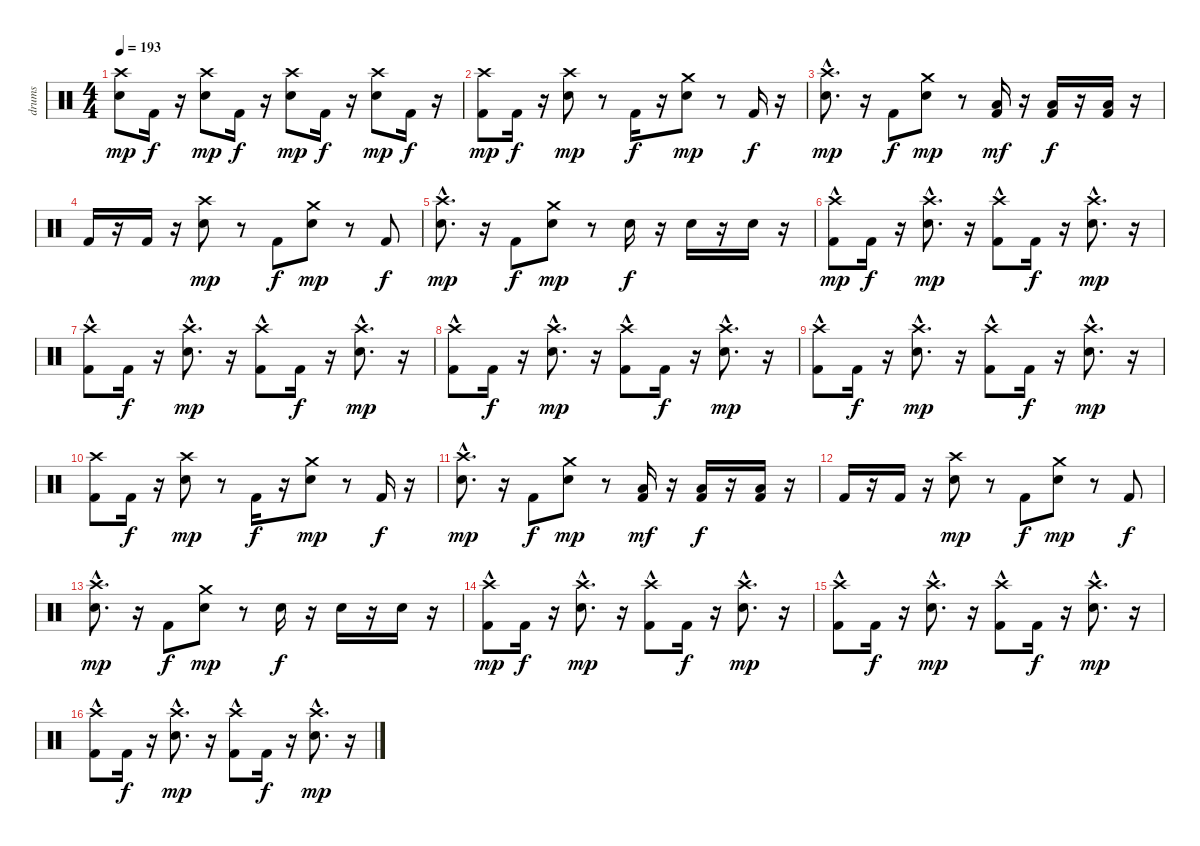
\track ("drums" "drums") {instrument percussion}
\staff {score}
\articulation defaults
\ts (4 4)
\tempo 193
\clef neutral
\ks c
("Snare (hit) 2" "Crash high (hit)").8{dy mp} "Kick (hit) 2".16{dy f} r.16 ("Snare (hit) 2" "Crash high (hit)").8{dy mp} "Kick (hit) 2".16{dy f} r.16 ("Snare (hit) 2" "Crash high (hit)").8{dy mp} "Kick (hit) 2".16{dy f} r.16 ("Snare (hit) 2" "Crash high (hit)").8{dy mp} "Kick (hit) 2".16{dy f} r.16 |
("Kick (hit) 2" "Crash high (hit)").8{dy mp} "Kick (hit) 2".16{dy f} r.16 ("Snare (hit) 2" "Crash high (hit)").8{dy mp} r.8 "Kick (hit) 2".16{dy f} r.16 ("Snare (hit) 2" "Crash medium (hit)").8{dy mp} r.8 "Kick (hit) 2".16{dy f} r.16 |
("Snare (hit) 2" "Crash high (hit)"{hac}).8{d dy mp} r.16 "Kick (hit) 2".8{dy f} ("Snare (hit) 2" "Crash medium (hit)").8{dy mp} r.8 ("Low Tom (hit)" "Kick (hit) 2").16{dy mf} r.16 ("Low Tom (hit)" "Kick (hit) 2").16{dy f} r.16 ("Low Tom (hit)" "Kick (hit) 2").16 r.16 |
"Kick (hit) 2".16 r.16 "Kick (hit) 2".16 r.16 ("Snare (hit) 2" "Crash high (hit)").8{dy mp} r.8 "Kick (hit) 2".8{dy f} ("Snare (hit) 2" "Crash medium (hit)").8{dy mp} r.8 "Kick (hit) 2".8{dy f} |
("Snare (hit) 2" "Crash high (hit)"{hac}).8{d dy mp} r.16 "Kick (hit) 2".8{dy f} ("Snare (hit) 2" "Crash medium (hit)").8{dy mp} r.8 "Snare (hit) 2".16{dy f} r.16 "Snare (hit) 2".16 r.16 "Snare (hit) 2".16 r.16 |
("Kick (hit) 2" "Crash high (hit)"{hac}).8{dy mp} "Kick (hit) 2".16{dy f} r.16 ("Snare (hit) 2" "Crash high (hit)"{hac}).8{d dy mp} r.16 ("Kick (hit) 2" "Crash high (hit)"{hac}).8 "Kick (hit) 2".16{dy f} r.16 ("Snare (hit) 2" "Crash high (hit)"{hac}).8{d dy mp} r.16 |
("Kick (hit) 2" "Crash high (hit)"{hac}).8 "Kick (hit) 2".16{dy f} r.16 ("Snare (hit) 2" "Crash high (hit)"{hac}).8{d dy mp} r.16 ("Kick (hit) 2" "Crash high (hit)"{hac}).8 "Kick (hit) 2".16{dy f} r.16 ("Snare (hit) 2" "Crash high (hit)"{hac}).8{d dy mp} r.16 |
("Kick (hit) 2" "Crash high (hit)"{hac}).8 "Kick (hit) 2".16{dy f} r.16 ("Snare (hit) 2" "Crash high (hit)"{hac}).8{d dy mp} r.16 ("Kick (hit) 2" "Crash high (hit)"{hac}).8 "Kick (hit) 2".16{dy f} r.16 ("Snare (hit) 2" "Crash high (hit)"{hac}).8{d dy mp} r.16 |
("Kick (hit) 2" "Crash high (hit)"{hac}).8 "Kick (hit) 2".16{dy f} r.16 ("Snare (hit) 2" "Crash high (hit)"{hac}).8{d dy mp} r.16 ("Kick (hit) 2" "Crash high (hit)"{hac}).8 "Kick (hit) 2".16{dy f} r.16 ("Snare (hit) 2" "Crash high (hit)"{hac}).8{d dy mp} r.16 |
("Kick (hit) 2" "Crash high (hit)").8 "Kick (hit) 2".16{dy f} r.16 ("Snare (hit) 2" "Crash high (hit)").8{dy mp} r.8 "Kick (hit) 2".16{dy f} r.16 ("Snare (hit) 2" "Crash medium (hit)").8{dy mp} r.8 "Kick (hit) 2".16{dy f} r.16 |
("Snare (hit) 2" "Crash high (hit)"{hac}).8{d dy mp} r.16 "Kick (hit) 2".8{dy f} ("Snare (hit) 2" "Crash medium (hit)").8{dy mp} r.8 ("Low Tom (hit)" "Kick (hit) 2").16{dy mf} r.16 ("Low Tom (hit)" "Kick (hit) 2").16{dy f} r.16 ("Low Tom (hit)" "Kick (hit) 2").16 r.16 |
"Kick (hit) 2".16 r.16 "Kick (hit) 2".16 r.16 ("Snare (hit) 2" "Crash high (hit)").8{dy mp} r.8 "Kick (hit) 2".8{dy f} ("Snare (hit) 2" "Crash medium (hit)").8{dy mp} r.8 "Kick (hit) 2".8{dy f} |
("Snare (hit) 2" "Crash high (hit)"{hac}).8{d dy mp} r.16 "Kick (hit) 2".8{dy f} ("Snare (hit) 2" "Crash medium (hit)").8{dy mp} r.8 "Snare (hit) 2".16{dy f} r.16 "Snare (hit) 2".16 r.16 "Snare (hit) 2".16 r.16 |
("Kick (hit) 2" "Crash high (hit)"{hac}).8{dy mp} "Kick (hit) 2".16{dy f} r.16 ("Snare (hit) 2" "Crash high (hit)"{hac}).8{d dy mp} r.16 ("Kick (hit) 2" "Crash high (hit)"{hac}).8 "Kick (hit) 2".16{dy f} r.16 ("Snare (hit) 2" "Crash high (hit)"{hac}).8{d dy mp} r.16 |
("Kick (hit) 2" "Crash high (hit)"{hac}).8 "Kick (hit) 2".16{dy f} r.16 ("Snare (hit) 2" "Crash high (hit)"{hac}).8{d dy mp} r.16 ("Kick (hit) 2" "Crash high (hit)"{hac}).8 "Kick (hit) 2".16{dy f} r.16 ("Snare (hit) 2" "Crash high (hit)"{hac}).8{d dy mp} r.16 |
("Kick (hit) 2" "Crash high (hit)"{hac}).8 "Kick (hit) 2".16{dy f} r.16 ("Snare (hit) 2" "Crash high (hit)"{hac}).8{d dy mp} r.16 ("Kick (hit) 2" "Crash high (hit)"{hac}).8 "Kick (hit) 2".16{dy f} r.16 ("Snare (hit) 2" "Crash high (hit)"{hac}).8{d dy mp} r.16
